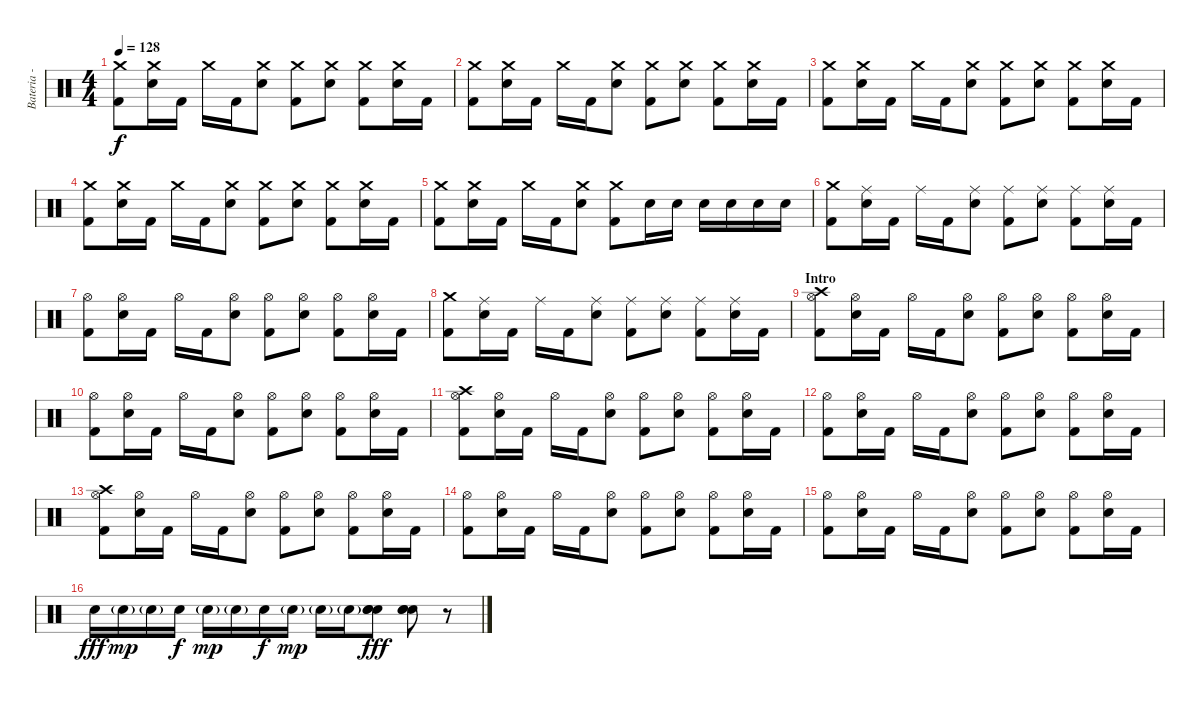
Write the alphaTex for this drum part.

\track ("Bateria - Larzon" "Bateria - ") {instrument percussion}
\staff {score}
\articulation defaults
\ts (4 4)
\tempo 128
\clef neutral
\ks c
("Kick (hit) 2" "Crash medium (hit)").8{dy f} ("Electric Snare (hit)" "Crash medium (hit)").16 "Kick (hit) 2".16 "Crash medium (hit)".16 "Kick (hit) 2".16 ("Electric Snare (hit)" "Crash medium (hit)").8 ("Kick (hit) 2" "Crash medium (hit)").8 ("Electric Snare (hit)" "Crash medium (hit)").8 ("Kick (hit) 2" "Crash medium (hit)").8 ("Electric Snare (hit)" "Crash medium (hit)").16 "Kick (hit) 2".16 |
("Kick (hit) 2" "Crash medium (hit)").8 ("Electric Snare (hit)" "Crash medium (hit)").16 "Kick (hit) 2".16 "Crash medium (hit)".16 "Kick (hit) 2".16 ("Electric Snare (hit)" "Crash medium (hit)").8 ("Kick (hit) 2" "Crash medium (hit)").8 ("Electric Snare (hit)" "Crash medium (hit)").8 ("Kick (hit) 2" "Crash medium (hit)").8 ("Electric Snare (hit)" "Crash medium (hit)").16 "Kick (hit) 2".16 |
("Kick (hit) 2" "Crash medium (hit)").8 ("Electric Snare (hit)" "Crash medium (hit)").16 "Kick (hit) 2".16 "Crash medium (hit)".16 "Kick (hit) 2".16 ("Electric Snare (hit)" "Crash medium (hit)").8 ("Kick (hit) 2" "Crash medium (hit)").8 ("Electric Snare (hit)" "Crash medium (hit)").8 ("Kick (hit) 2" "Crash medium (hit)").8 ("Electric Snare (hit)" "Crash medium (hit)").16 "Kick (hit) 2".16 |
("Kick (hit) 2" "Crash medium (hit)").8 ("Electric Snare (hit)" "Crash medium (hit)").16 "Kick (hit) 2".16 "Crash medium (hit)".16 "Kick (hit) 2".16 ("Electric Snare (hit)" "Crash medium (hit)").8 ("Kick (hit) 2" "Crash medium (hit)").8 ("Electric Snare (hit)" "Crash medium (hit)").8 ("Kick (hit) 2" "Crash medium (hit)").8 ("Electric Snare (hit)" "Crash medium (hit)").16 "Kick (hit) 2".16 |
("Kick (hit) 2" "Crash medium (hit)").8 ("Electric Snare (hit)" "Crash medium (hit)").16 "Kick (hit) 2".16 "Crash medium (hit)".16 "Kick (hit) 2".16 ("Electric Snare (hit)" "Crash medium (hit)").8 ("Kick (hit) 2" "Crash medium (hit)").8 "Electric Snare (hit)".16 "Electric Snare (hit)".16 "Electric Snare (hit)".16 "Electric Snare (hit)".16 "Electric Snare (hit)".16 "Electric Snare (hit)".16 |
("Kick (hit) 2" "Crash medium (hit)").8 ("Electric Snare (hit)" "Ride (middle)").16 "Kick (hit) 2".16 "Ride (middle)".16 "Kick (hit) 2".16 ("Electric Snare (hit)" "Ride (middle)").8 ("Kick (hit) 2" "Ride (middle)").8 ("Electric Snare (hit)" "Ride (middle)").8 ("Kick (hit) 2" "Ride (middle)").8 ("Electric Snare (hit)" "Ride (middle)").16 "Kick (hit) 2".16 |
("Kick (hit) 2" "Hi-Hat (open)").8 ("Electric Snare (hit)" "Hi-Hat (open)").16 "Kick (hit) 2".16 "Hi-Hat (open)".16 "Kick (hit) 2".16 ("Electric Snare (hit)" "Hi-Hat (open)").8 ("Kick (hit) 2" "Hi-Hat (open)").8 ("Electric Snare (hit)" "Hi-Hat (open)").8 ("Kick (hit) 2" "Hi-Hat (open)").8 ("Electric Snare (hit)" "Hi-Hat (open)").16 "Kick (hit) 2".16 |
("Kick (hit) 2" "Crash medium (hit)").8 ("Electric Snare (hit)" "Ride (middle)").16 "Kick (hit) 2".16 "Ride (middle)".16 "Kick (hit) 2".16 ("Electric Snare (hit)" "Ride (middle)").8 ("Kick (hit) 2" "Ride (middle)").8 ("Electric Snare (hit)" "Ride (middle)").8 ("Kick (hit) 2" "Ride (middle)").8 ("Electric Snare (hit)" "Ride (middle)").16 "Kick (hit) 2".16 |
\section ("" "Intro")
("Kick (hit) 2" "Hi-Hat (open)" "Crash high (hit)").8 ("Electric Snare (hit)" "Hi-Hat (open)").16 "Kick (hit) 2".16 "Hi-Hat (open)".16 "Kick (hit) 2".16 ("Electric Snare (hit)" "Hi-Hat (open)").8 ("Kick (hit) 2" "Hi-Hat (open)").8 ("Electric Snare (hit)" "Hi-Hat (open)").8 ("Kick (hit) 2" "Hi-Hat (open)").8 ("Electric Snare (hit)" "Hi-Hat (open)").16 "Kick (hit) 2".16 |
("Kick (hit) 2" "Hi-Hat (open)").8 ("Electric Snare (hit)" "Hi-Hat (open)").16 "Kick (hit) 2".16 "Hi-Hat (open)".16 "Kick (hit) 2".16 ("Electric Snare (hit)" "Hi-Hat (open)").8 ("Kick (hit) 2" "Hi-Hat (open)").8 ("Electric Snare (hit)" "Hi-Hat (open)").8 ("Kick (hit) 2" "Hi-Hat (open)").8 ("Electric Snare (hit)" "Hi-Hat (open)").16 "Kick (hit) 2".16 |
("Kick (hit) 2" "Hi-Hat (open)" "Crash high (hit)").8 ("Electric Snare (hit)" "Hi-Hat (open)").16 "Kick (hit) 2".16 "Hi-Hat (open)".16 "Kick (hit) 2".16 ("Electric Snare (hit)" "Hi-Hat (open)").8 ("Kick (hit) 2" "Hi-Hat (open)").8 ("Electric Snare (hit)" "Hi-Hat (open)").8 ("Kick (hit) 2" "Hi-Hat (open)").8 ("Electric Snare (hit)" "Hi-Hat (open)").16 "Kick (hit) 2".16 |
("Kick (hit) 2" "Hi-Hat (open)").8 ("Electric Snare (hit)" "Hi-Hat (open)").16 "Kick (hit) 2".16 "Hi-Hat (open)".16 "Kick (hit) 2".16 ("Electric Snare (hit)" "Hi-Hat (open)").8 ("Kick (hit) 2" "Hi-Hat (open)").8 ("Electric Snare (hit)" "Hi-Hat (open)").8 ("Kick (hit) 2" "Hi-Hat (open)").8 ("Electric Snare (hit)" "Hi-Hat (open)").16 "Kick (hit) 2".16 |
("Kick (hit) 2" "Hi-Hat (open)" "Crash high (hit)").8 ("Electric Snare (hit)" "Hi-Hat (open)").16 "Kick (hit) 2".16 "Hi-Hat (open)".16 "Kick (hit) 2".16 ("Electric Snare (hit)" "Hi-Hat (open)").8 ("Kick (hit) 2" "Hi-Hat (open)").8 ("Electric Snare (hit)" "Hi-Hat (open)").8 ("Kick (hit) 2" "Hi-Hat (open)").8 ("Electric Snare (hit)" "Hi-Hat (open)").16 "Kick (hit) 2".16 |
("Kick (hit) 2" "Hi-Hat (open)").8 ("Electric Snare (hit)" "Hi-Hat (open)").16 "Kick (hit) 2".16 "Hi-Hat (open)".16 "Kick (hit) 2".16 ("Electric Snare (hit)" "Hi-Hat (open)").8 ("Kick (hit) 2" "Hi-Hat (open)").8 ("Electric Snare (hit)" "Hi-Hat (open)").8 ("Kick (hit) 2" "Hi-Hat (open)").8 ("Electric Snare (hit)" "Hi-Hat (open)").16 "Kick (hit) 2".16 |
("Kick (hit) 2" "Hi-Hat (open)").8 ("Electric Snare (hit)" "Hi-Hat (open)").16 "Kick (hit) 2".16 "Hi-Hat (open)".16 "Kick (hit) 2".16 ("Electric Snare (hit)" "Hi-Hat (open)").8 ("Kick (hit) 2" "Hi-Hat (open)").8 ("Electric Snare (hit)" "Hi-Hat (open)").8 ("Kick (hit) 2" "Hi-Hat (open)").8 ("Electric Snare (hit)" "Hi-Hat (open)").16 "Kick (hit) 2".16 |
"Electric Snare (hit)".16{dy fff} "Electric Snare (hit)"{g}.16{dy mp} "Electric Snare (hit)"{g}.16 "Electric Snare (hit)".16{dy f} "Electric Snare (hit)"{g}.16{dy mp} "Electric Snare (hit)"{g}.16 "Electric Snare (hit)".16{dy f} "Electric Snare (hit)"{g}.16{dy mp} "Electric Snare (hit)"{g}.16 "Electric Snare (hit)"{g}.16 ("Electric Snare (hit)" "Electric Snare (hit)" "Electric Snare (hit)").8{dy fff} ("Electric Snare (hit)" "Electric Snare (hit)" "Electric Snare (hit)").8 r.8
